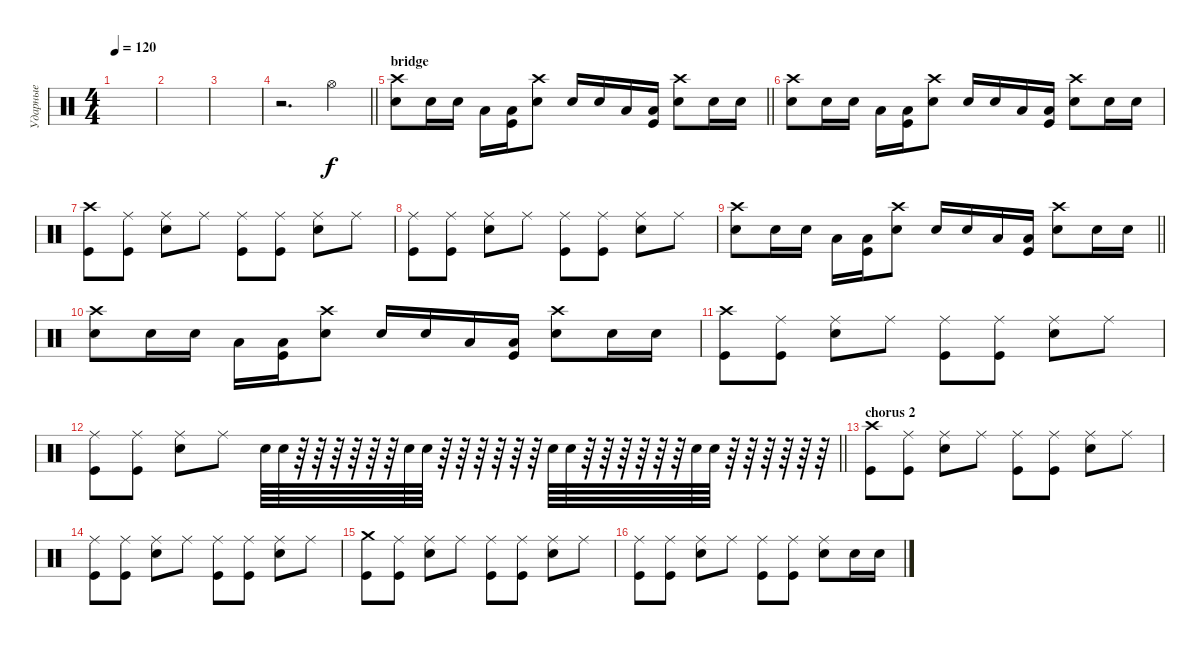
\track ("Ударные" "Ударные") {instrument percussion}
\staff {score}
\articulation defaults
\ts (4 4)
\tempo 120
\clef neutral
\ks c
|
|
|
\barLineRight lightlight
r.2{d} "Hi-Hat (open)".4 |
\section ("" "bridge")
\barLineRight lightlight
("Crash high (hit)" "Snare (hit) 2").8 "Snare (hit) 2".16 "Snare (hit) 2".16 "Low Floor Tom (hit)".16 ("Low Floor Tom (hit)" "Kick (hit)").16 ("Crash high (hit)" "Snare (hit) 2").8 "Snare (hit) 2".16 "Snare (hit) 2".16 "Low Floor Tom (hit)".16 ("Low Floor Tom (hit)" "Kick (hit)").16 ("Crash high (hit)" "Snare (hit) 2").8 "Snare (hit) 2".16 "Snare (hit) 2".16 |
\section ("" "")
("Crash high (hit)" "Snare (hit) 2").8 "Snare (hit) 2".16 "Snare (hit) 2".16 "Low Floor Tom (hit)".16 ("Low Floor Tom (hit)" "Kick (hit)").16 ("Crash high (hit)" "Snare (hit) 2").8 "Snare (hit) 2".16 "Snare (hit) 2".16 "Low Floor Tom (hit)".16 ("Low Floor Tom (hit)" "Kick (hit)").16 ("Crash high (hit)" "Snare (hit) 2").8 "Snare (hit) 2".16 "Snare (hit) 2".16 |
("Crash high (hit)" "Kick (hit)").8 ("Ride (middle)" "Kick (hit)").8 ("Ride (middle)" "Snare (hit) 2").8 "Ride (middle)".8 ("Ride (middle)" "Kick (hit)").8 ("Ride (middle)" "Kick (hit)").8 ("Ride (middle)" "Snare (hit) 2").8 "Ride (middle)".8 |
("Ride (middle)" "Kick (hit)").8 ("Ride (middle)" "Kick (hit)").8 ("Ride (middle)" "Snare (hit) 2").8 "Ride (middle)".8 ("Ride (middle)" "Kick (hit)").8 ("Ride (middle)" "Kick (hit)").8 ("Ride (middle)" "Snare (hit) 2").8 "Ride (middle)".8 |
\barLineRight lightlight
("Crash high (hit)" "Snare (hit) 2").8 "Snare (hit) 2".16 "Snare (hit) 2".16 "Low Floor Tom (hit)".16 ("Low Floor Tom (hit)" "Kick (hit)").16 ("Crash high (hit)" "Snare (hit) 2").8 "Snare (hit) 2".16 "Snare (hit) 2".16 "Low Floor Tom (hit)".16 ("Low Floor Tom (hit)" "Kick (hit)").16 ("Crash high (hit)" "Snare (hit) 2").8 "Snare (hit) 2".16 "Snare (hit) 2".16 |
("Crash high (hit)" "Snare (hit) 2").8 "Snare (hit) 2".16 "Snare (hit) 2".16 "Low Floor Tom (hit)".16 ("Low Floor Tom (hit)" "Kick (hit)").16 ("Crash high (hit)" "Snare (hit) 2").8 "Snare (hit) 2".16 "Snare (hit) 2".16 "Low Floor Tom (hit)".16 ("Low Floor Tom (hit)" "Kick (hit)").16 ("Crash high (hit)" "Snare (hit) 2").8 "Snare (hit) 2".16 "Snare (hit) 2".16 |
("Crash high (hit)" "Kick (hit)").8 ("Ride (middle)" "Kick (hit)").8 ("Ride (middle)" "Snare (hit) 2").8 "Ride (middle)".8 ("Ride (middle)" "Kick (hit)").8 ("Ride (middle)" "Kick (hit)").8 ("Ride (middle)" "Snare (hit) 2").8 "Ride (middle)".8 |
\barLineRight lightlight
("Ride (middle)" "Kick (hit)").8 ("Ride (middle)" "Kick (hit)").8 ("Ride (middle)" "Electric Snare (hit)").8 "Ride (middle)".8 "Electric Snare (hit)".64 "Electric Snare (hit)".64 r.64 r.64 r.64 r.64 r.64 r.64 "Electric Snare (hit)".64 "Electric Snare (hit)".64 r.64 r.64 r.64 r.64 r.64 r.64 "Electric Snare (hit)".64 "Electric Snare (hit)".64 r.64 r.64 r.64 r.64 r.64 r.64 "Electric Snare (hit)".64 "Electric Snare (hit)".64 r.64 r.64 r.64 r.64 r.64 r.64 |
\section ("" "chorus 2")
("Crash high (hit)" "Kick (hit)").8 ("Ride (middle)" "Kick (hit)").8 ("Ride (middle)" "Snare (hit) 2").8 "Ride (middle)".8 ("Ride (middle)" "Kick (hit)").8 ("Ride (middle)" "Kick (hit)").8 ("Ride (middle)" "Snare (hit) 2").8 "Ride (middle)".8 |
("Ride (middle)" "Kick (hit)").8 ("Ride (middle)" "Kick (hit)").8 ("Ride (middle)" "Snare (hit) 2").8 "Ride (middle)".8 ("Ride (middle)" "Kick (hit)").8 ("Ride (middle)" "Kick (hit)").8 ("Ride (middle)" "Snare (hit) 2").8 "Ride (middle)".8 |
("Crash medium (hit)" "Kick (hit)").8 ("Ride (middle)" "Kick (hit)").8 ("Ride (middle)" "Snare (hit) 2").8 "Ride (middle)".8 ("Ride (middle)" "Kick (hit)").8 ("Ride (middle)" "Kick (hit)").8 ("Ride (middle)" "Snare (hit) 2").8 "Ride (middle)".8 |
("Ride (middle)" "Kick (hit)").8 ("Ride (middle)" "Kick (hit)").8 ("Ride (middle)" "Snare (hit) 2").8 "Ride (middle)".8 ("Ride (middle)" "Kick (hit)").8 ("Ride (middle)" "Kick (hit)").8 ("Ride (middle)" "Snare (hit) 2").8 "Snare (hit) 2".16 "Snare (hit) 2".16
